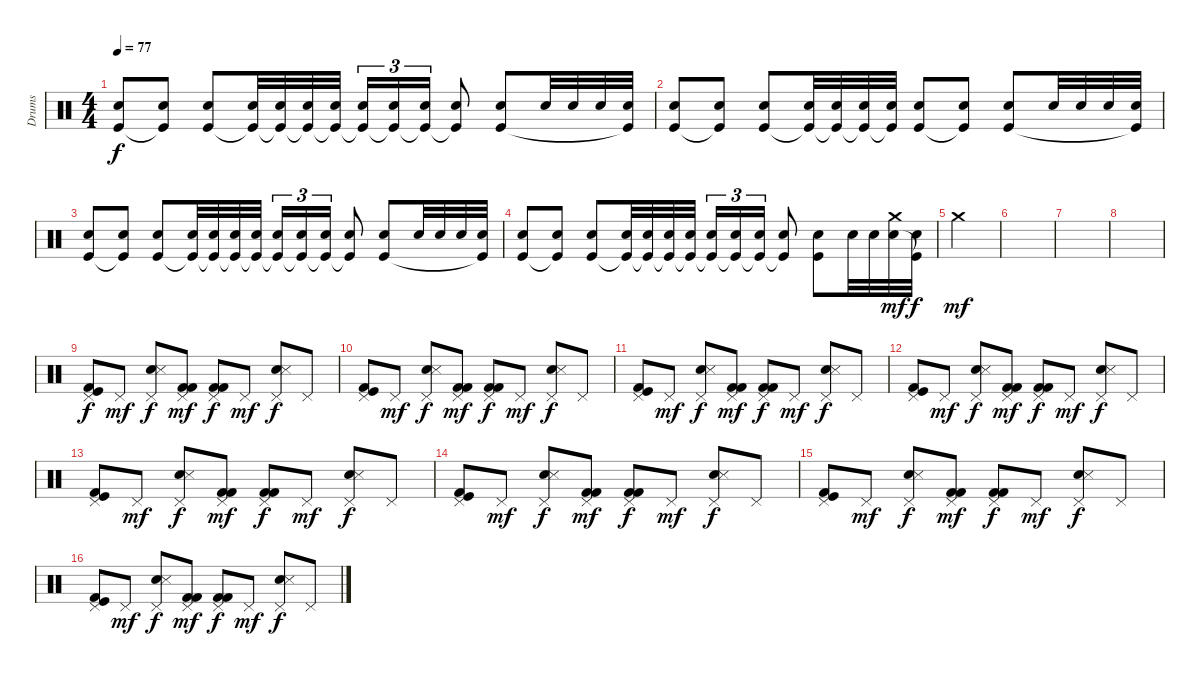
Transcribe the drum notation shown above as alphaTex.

\track ("Drums" "Drums") {instrument percussion}
\staff {score}
\articulation defaults
\ts (4 4)
\tempo 77
\clef neutral
\ks c
("Snare (hit) 2" "Kick (hit)").8{dy f} ("Snare (hit) 2" "Kick (hit)"{t}).8 ("Snare (hit) 2" "Kick (hit)").8 ("Snare (hit) 2" "Kick (hit)"{t}).32 ("Snare (hit) 2" "Kick (hit)"{t}).32 ("Snare (hit) 2" "Kick (hit)"{t}).32 ("Snare (hit) 2" "Kick (hit)"{t}).32 ("Snare (hit) 2" "Kick (hit)"{t}).16{tu (3 2)} ("Snare (hit) 2" "Kick (hit)"{t}).16{tu (3 2)} ("Snare (hit) 2" "Kick (hit)"{t}).16{tu (3 2)} ("Snare (hit) 2" "Kick (hit)"{t}).8 ("Snare (hit) 2" "Kick (hit)").8 "Snare (hit) 2".32 "Snare (hit) 2".32 "Snare (hit) 2".32 ("Snare (hit) 2" "Kick (hit)"{t}).32 |
("Snare (hit) 2" "Kick (hit)").8 ("Snare (hit) 2" "Kick (hit)"{t}).8 ("Snare (hit) 2" "Kick (hit)").8 ("Snare (hit) 2" "Kick (hit)"{t}).32 ("Snare (hit) 2" "Kick (hit)"{t}).32 ("Snare (hit) 2" "Kick (hit)"{t}).32 ("Snare (hit) 2" "Kick (hit)"{t}).32 ("Snare (hit) 2" "Kick (hit)").8 ("Snare (hit) 2" "Kick (hit)"{t}).8 ("Snare (hit) 2" "Kick (hit)").8 "Snare (hit) 2".32 "Snare (hit) 2".32 "Snare (hit) 2".32 ("Snare (hit) 2" "Kick (hit)"{t}).32 |
("Snare (hit) 2" "Kick (hit)").8 ("Snare (hit) 2" "Kick (hit)"{t}).8 ("Snare (hit) 2" "Kick (hit)").8 ("Snare (hit) 2" "Kick (hit)"{t}).32 ("Snare (hit) 2" "Kick (hit)"{t}).32 ("Snare (hit) 2" "Kick (hit)"{t}).32 ("Snare (hit) 2" "Kick (hit)"{t}).32 ("Snare (hit) 2" "Kick (hit)"{t}).16{tu (3 2)} ("Snare (hit) 2" "Kick (hit)"{t}).16{tu (3 2)} ("Snare (hit) 2" "Kick (hit)"{t}).16{tu (3 2)} ("Snare (hit) 2" "Kick (hit)"{t}).8 ("Snare (hit) 2" "Kick (hit)").8 "Snare (hit) 2".32 "Snare (hit) 2".32 "Snare (hit) 2".32 ("Snare (hit) 2" "Kick (hit)"{t}).32 |
("Snare (hit) 2" "Kick (hit)").8 ("Snare (hit) 2" "Kick (hit)"{t}).8 ("Snare (hit) 2" "Kick (hit)").8 ("Snare (hit) 2" "Kick (hit)"{t}).32 ("Snare (hit) 2" "Kick (hit)"{t}).32 ("Snare (hit) 2" "Kick (hit)"{t}).32 ("Snare (hit) 2" "Kick (hit)"{t}).32 ("Snare (hit) 2" "Kick (hit)"{t}).16{tu (3 2)} ("Snare (hit) 2" "Kick (hit)"{t}).16{tu (3 2)} ("Snare (hit) 2" "Kick (hit)"{t}).16{tu (3 2)} ("Snare (hit) 2" "Kick (hit)"{t}).8 ("Snare (hit) 2" "Kick (hit)").8 "Snare (hit) 2".32 "Snare (hit) 2".32 ("Crash medium (hit)" "Snare (hit) 2").32{dy mf} ("Snare (hit) 2" "Kick (hit)"{t}).32{dy f} |
"Crash medium (hit)".4{dy mf} |
|
|
|
("Pedal Hi-Hat (hit)" "Kick (hit) 2" "Kick (hit)").8{dy f} "Pedal Hi-Hat (hit)".8{dy mf} ("Pedal Hi-Hat (hit)" "Snare (hit) 2" "Snare (side stick) 3").8{dy f} ("Pedal Hi-Hat (hit)" "Kick (hit) 2" "Kick (hit) 2").8{dy mf} ("Pedal Hi-Hat (hit)" "Kick (hit) 2" "Kick (hit) 2").8{dy f} "Pedal Hi-Hat (hit)".8{dy mf} ("Pedal Hi-Hat (hit)" "Snare (hit) 2" "Snare (side stick) 3").8{dy f} "Pedal Hi-Hat (hit)".8 |
("Pedal Hi-Hat (hit)" "Kick (hit) 2" "Kick (hit)").8 "Pedal Hi-Hat (hit)".8{dy mf} ("Pedal Hi-Hat (hit)" "Snare (hit) 2" "Snare (side stick) 3").8{dy f} ("Pedal Hi-Hat (hit)" "Kick (hit) 2" "Kick (hit) 2").8{dy mf} ("Pedal Hi-Hat (hit)" "Kick (hit) 2" "Kick (hit) 2").8{dy f} "Pedal Hi-Hat (hit)".8{dy mf} ("Pedal Hi-Hat (hit)" "Snare (hit) 2" "Snare (side stick) 3").8{dy f} "Pedal Hi-Hat (hit)".8 |
("Pedal Hi-Hat (hit)" "Kick (hit) 2" "Kick (hit)").8 "Pedal Hi-Hat (hit)".8{dy mf} ("Pedal Hi-Hat (hit)" "Snare (hit) 2" "Snare (side stick) 3").8{dy f} ("Pedal Hi-Hat (hit)" "Kick (hit) 2" "Kick (hit) 2").8{dy mf} ("Pedal Hi-Hat (hit)" "Kick (hit) 2" "Kick (hit) 2").8{dy f} "Pedal Hi-Hat (hit)".8{dy mf} ("Pedal Hi-Hat (hit)" "Snare (hit) 2" "Snare (side stick) 3").8{dy f} "Pedal Hi-Hat (hit)".8 |
("Pedal Hi-Hat (hit)" "Kick (hit) 2" "Kick (hit)").8 "Pedal Hi-Hat (hit)".8{dy mf} ("Pedal Hi-Hat (hit)" "Snare (hit) 2" "Snare (side stick) 3").8{dy f} ("Pedal Hi-Hat (hit)" "Kick (hit) 2" "Kick (hit) 2").8{dy mf} ("Pedal Hi-Hat (hit)" "Kick (hit) 2" "Kick (hit) 2").8{dy f} "Pedal Hi-Hat (hit)".8{dy mf} ("Pedal Hi-Hat (hit)" "Snare (hit) 2" "Snare (side stick) 3").8{dy f} "Pedal Hi-Hat (hit)".8 |
("Pedal Hi-Hat (hit)" "Kick (hit) 2" "Kick (hit)").8 "Pedal Hi-Hat (hit)".8{dy mf} ("Pedal Hi-Hat (hit)" "Snare (hit) 2" "Snare (side stick) 3").8{dy f} ("Pedal Hi-Hat (hit)" "Kick (hit) 2" "Kick (hit) 2").8{dy mf} ("Pedal Hi-Hat (hit)" "Kick (hit) 2" "Kick (hit) 2").8{dy f} "Pedal Hi-Hat (hit)".8{dy mf} ("Pedal Hi-Hat (hit)" "Snare (hit) 2" "Snare (side stick) 3").8{dy f} "Pedal Hi-Hat (hit)".8 |
("Pedal Hi-Hat (hit)" "Kick (hit) 2" "Kick (hit)").8 "Pedal Hi-Hat (hit)".8{dy mf} ("Pedal Hi-Hat (hit)" "Snare (hit) 2" "Snare (side stick) 3").8{dy f} ("Pedal Hi-Hat (hit)" "Kick (hit) 2" "Kick (hit) 2").8{dy mf} ("Pedal Hi-Hat (hit)" "Kick (hit) 2" "Kick (hit) 2").8{dy f} "Pedal Hi-Hat (hit)".8{dy mf} ("Pedal Hi-Hat (hit)" "Snare (hit) 2" "Snare (side stick) 3").8{dy f} "Pedal Hi-Hat (hit)".8 |
("Pedal Hi-Hat (hit)" "Kick (hit) 2" "Kick (hit)").8 "Pedal Hi-Hat (hit)".8{dy mf} ("Pedal Hi-Hat (hit)" "Snare (hit) 2" "Snare (side stick) 3").8{dy f} ("Pedal Hi-Hat (hit)" "Kick (hit) 2" "Kick (hit) 2").8{dy mf} ("Pedal Hi-Hat (hit)" "Kick (hit) 2" "Kick (hit) 2").8{dy f} "Pedal Hi-Hat (hit)".8{dy mf} ("Pedal Hi-Hat (hit)" "Snare (hit) 2" "Snare (side stick) 3").8{dy f} "Pedal Hi-Hat (hit)".8 |
("Pedal Hi-Hat (hit)" "Kick (hit) 2" "Kick (hit)").8 "Pedal Hi-Hat (hit)".8{dy mf} ("Pedal Hi-Hat (hit)" "Snare (hit) 2" "Snare (side stick) 3").8{dy f} ("Pedal Hi-Hat (hit)" "Kick (hit) 2" "Kick (hit) 2").8{dy mf} ("Pedal Hi-Hat (hit)" "Kick (hit) 2" "Kick (hit) 2").8{dy f} "Pedal Hi-Hat (hit)".8{dy mf} ("Pedal Hi-Hat (hit)" "Snare (hit) 2" "Snare (side stick) 3").8{dy f} "Pedal Hi-Hat (hit)".8
